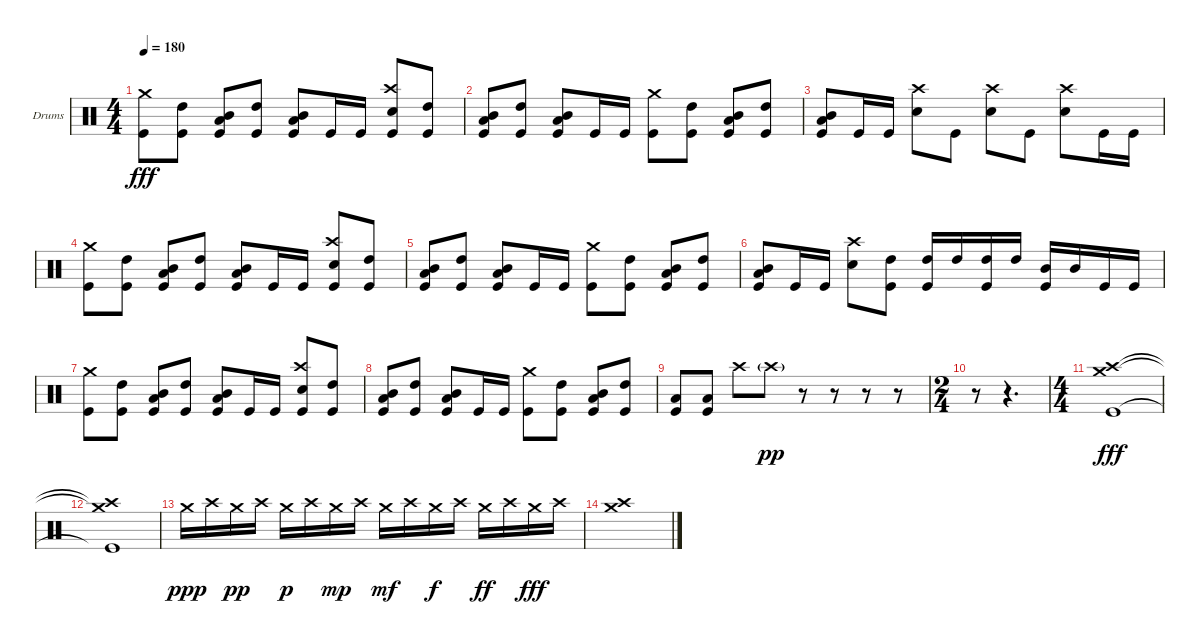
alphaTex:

\bracketExtendMode groupsimilarinstruments
\firstSystemTrackNameOrientation horizontal
\otherSystemsTrackNameOrientation horizontal
\track ("Drumkit" "Drums") {instrument percussion}
\staff {score}
\articulation defaults
\ts (4 4)
\tempo 180
\clef neutral
\ks c
("Crash medium (hit)" "Kick (hit)").8{dy fff} ("High Tom (hit)" "Kick (hit)").8 ("Low Tom (hit)" "Mid Tom (hit)" "Kick (hit)").8 ("High Tom (hit)" "Kick (hit)").8 ("Low Tom (hit)" "Mid Tom (hit)" "Kick (hit)").8 "Kick (hit)".16 "Kick (hit)".16 ("Crash high (hit)" "Snare (hit) 2" "Kick (hit)").8 ("High Tom (hit)" "Kick (hit)").8 |
("Low Tom (hit)" "Mid Tom (hit)" "Kick (hit)").8 ("High Tom (hit)" "Kick (hit)").8 ("Low Tom (hit)" "Mid Tom (hit)" "Kick (hit)").8 "Kick (hit)".16 "Kick (hit)".16 ("Crash medium (hit)" "Kick (hit)").8 ("High Tom (hit)" "Kick (hit)").8 ("Mid Tom (hit)" "Low Tom (hit)" "Kick (hit)").8 ("High Tom (hit)" "Kick (hit)").8 |
("Mid Tom (hit)" "Low Tom (hit)" "Kick (hit)").8 "Kick (hit)".16 "Kick (hit)".16 ("Crash high (hit)" "Snare (hit) 2").8 "Kick (hit)".8 ("Crash high (hit)" "Snare (hit) 2").8 "Kick (hit)".8 ("Crash high (hit)" "Snare (hit) 2").8 "Kick (hit)".16 "Kick (hit)".16 |
("Crash medium (hit)" "Kick (hit)").8 ("High Tom (hit)" "Kick (hit)").8 ("Low Tom (hit)" "Mid Tom (hit)" "Kick (hit)").8 ("High Tom (hit)" "Kick (hit)").8 ("Low Tom (hit)" "Mid Tom (hit)" "Kick (hit)").8 "Kick (hit)".16 "Kick (hit)".16 ("Crash high (hit)" "Snare (hit) 2" "Kick (hit)").8 ("High Tom (hit)" "Kick (hit)").8 |
("Low Tom (hit)" "Mid Tom (hit)" "Kick (hit)").8 ("High Tom (hit)" "Kick (hit)").8 ("Low Tom (hit)" "Mid Tom (hit)" "Kick (hit)").8 "Kick (hit)".16 "Kick (hit)".16 ("Crash medium (hit)" "Kick (hit)").8 ("High Tom (hit)" "Kick (hit)").8 ("Mid Tom (hit)" "Low Tom (hit)" "Kick (hit)").8 ("High Tom (hit)" "Kick (hit)").8 |
("Mid Tom (hit)" "Low Tom (hit)" "Kick (hit)").8 "Kick (hit)".16 "Kick (hit)".16 ("Crash high (hit)" "Snare (hit) 2").8 ("High Tom (hit)" "Kick (hit)").8 ("High Tom (hit)" "Kick (hit)").16 "High Tom (hit)".16 ("High Tom (hit)" "Kick (hit)").16 "High Tom (hit)".16 ("Mid Tom (hit)" "Kick (hit)").16 "Mid Tom (hit)".16 "Kick (hit)".16 "Kick (hit)".16 |
("Crash medium (hit)" "Kick (hit)").8 ("High Tom (hit)" "Kick (hit)").8 ("Low Tom (hit)" "Mid Tom (hit)" "Kick (hit)").8 ("High Tom (hit)" "Kick (hit)").8 ("Low Tom (hit)" "Mid Tom (hit)" "Kick (hit)").8 "Kick (hit)".16 "Kick (hit)".16 ("Crash high (hit)" "Snare (hit) 2" "Kick (hit)").8 ("High Tom (hit)" "Kick (hit)").8 |
("Low Tom (hit)" "Mid Tom (hit)" "Kick (hit)").8 ("High Tom (hit)" "Kick (hit)").8 ("Low Tom (hit)" "Mid Tom (hit)" "Kick (hit)").8 "Kick (hit)".16 "Kick (hit)".16 ("Crash medium (hit)" "Kick (hit)").8 ("High Tom (hit)" "Kick (hit)").8 ("Mid Tom (hit)" "Low Tom (hit)" "Kick (hit)").8 ("High Tom (hit)" "Kick (hit)").8 |
("Low Tom (hit)" "Kick (hit)").8 ("Low Tom (hit)" "Kick (hit)").8 "Crash high (hit)".8 "Crash high (hit)"{g}.8{dy pp} r.8 r.8 r.8 r.8 |
\ts (2 4)
\beaming (8 2 2)
r.8 r.4{d} |
\ts (4 4)
\beaming (8 2 2 2 2)
("Crash medium (hit)" "Crash high (hit)" "Kick (hit)").1{dy fff} |
("Crash medium (hit)"{t} "Crash high (hit)"{t} "Kick (hit)"{t}).1 |
"Crash medium (hit)".16{dy ppp} "Crash high (hit)".16 "Crash medium (hit)".16{dy pp} "Crash high (hit)".16 "Crash medium (hit)".16{dy p} "Crash high (hit)".16 "Crash medium (hit)".16{dy mp} "Crash high (hit)".16 "Crash medium (hit)".16{dy mf} "Crash high (hit)".16 "Crash medium (hit)".16{dy f} "Crash high (hit)".16 "Crash medium (hit)".16{dy ff} "Crash high (hit)".16 "Crash medium (hit)".16{dy fff} "Crash high (hit)".16 |
("Crash medium (hit)" "Crash high (hit)").1
